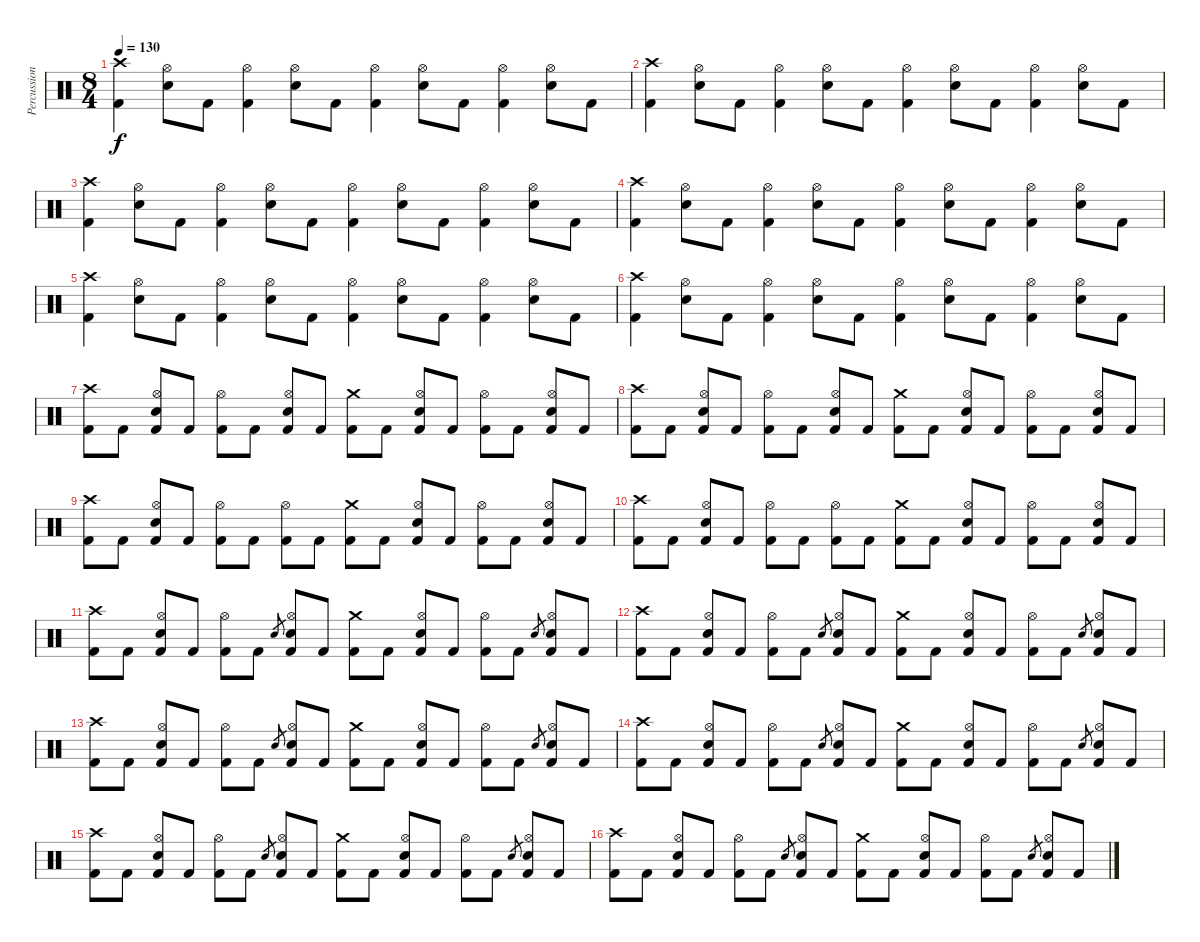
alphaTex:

\track ("Percussion" "Percussion") {instrument percussion}
\staff {score}
\articulation defaults
\ts (8 4)
\tempo 130
\clef neutral
\ks c
("Crash high (hit)" "Kick (hit) 2").4{dy f} ("Hi-Hat (open)" "Snare (hit) 2").8 "Kick (hit) 2".8 ("Hi-Hat (open)" "Kick (hit) 2").4 ("Hi-Hat (open)" "Snare (hit) 2").8 "Kick (hit) 2".8 ("Hi-Hat (open)" "Kick (hit) 2").4 ("Hi-Hat (open)" "Snare (hit) 2").8 "Kick (hit) 2".8 ("Hi-Hat (open)" "Kick (hit) 2").4 ("Hi-Hat (open)" "Snare (hit) 2").8 "Kick (hit) 2".8 |
("Crash high (hit)" "Kick (hit) 2").4 ("Hi-Hat (open)" "Snare (hit) 2").8 "Kick (hit) 2".8 ("Hi-Hat (open)" "Kick (hit) 2").4 ("Hi-Hat (open)" "Snare (hit) 2").8 "Kick (hit) 2".8 ("Hi-Hat (open)" "Kick (hit) 2").4 ("Hi-Hat (open)" "Snare (hit) 2").8 "Kick (hit) 2".8 ("Hi-Hat (open)" "Kick (hit) 2").4 ("Hi-Hat (open)" "Snare (hit) 2").8 "Kick (hit) 2".8 |
("Crash high (hit)" "Kick (hit) 2").4 ("Hi-Hat (open)" "Snare (hit) 2").8 "Kick (hit) 2".8 ("Hi-Hat (open)" "Kick (hit) 2").4 ("Hi-Hat (open)" "Snare (hit) 2").8 "Kick (hit) 2".8 ("Hi-Hat (open)" "Kick (hit) 2").4 ("Hi-Hat (open)" "Snare (hit) 2").8 "Kick (hit) 2".8 ("Hi-Hat (open)" "Kick (hit) 2").4 ("Hi-Hat (open)" "Snare (hit) 2").8 "Kick (hit) 2".8 |
("Crash high (hit)" "Kick (hit) 2").4 ("Hi-Hat (open)" "Snare (hit) 2").8 "Kick (hit) 2".8 ("Hi-Hat (open)" "Kick (hit) 2").4 ("Hi-Hat (open)" "Snare (hit) 2").8 "Kick (hit) 2".8 ("Hi-Hat (open)" "Kick (hit) 2").4 ("Hi-Hat (open)" "Snare (hit) 2").8 "Kick (hit) 2".8 ("Hi-Hat (open)" "Kick (hit) 2").4 ("Hi-Hat (open)" "Snare (hit) 2").8 "Kick (hit) 2".8 |
("Crash high (hit)" "Kick (hit) 2").4 ("Hi-Hat (open)" "Snare (hit) 2").8 "Kick (hit) 2".8 ("Hi-Hat (open)" "Kick (hit) 2").4 ("Hi-Hat (open)" "Snare (hit) 2").8 "Kick (hit) 2".8 ("Hi-Hat (open)" "Kick (hit) 2").4 ("Hi-Hat (open)" "Snare (hit) 2").8 "Kick (hit) 2".8 ("Hi-Hat (open)" "Kick (hit) 2").4 ("Hi-Hat (open)" "Snare (hit) 2").8 "Kick (hit) 2".8 |
("Crash high (hit)" "Kick (hit) 2").4 ("Hi-Hat (open)" "Snare (hit) 2").8 "Kick (hit) 2".8 ("Hi-Hat (open)" "Kick (hit) 2").4 ("Hi-Hat (open)" "Snare (hit) 2").8 "Kick (hit) 2".8 ("Hi-Hat (open)" "Kick (hit) 2").4 ("Hi-Hat (open)" "Snare (hit) 2").8 "Kick (hit) 2".8 ("Hi-Hat (open)" "Kick (hit) 2").4 ("Hi-Hat (open)" "Snare (hit) 2").8 "Kick (hit) 2".8 |
("Crash high (hit)" "Kick (hit) 2").8 "Kick (hit) 2".8 ("Hi-Hat (open)" "Snare (hit) 2" "Kick (hit) 2").8 "Kick (hit) 2".8 ("Hi-Hat (open)" "Kick (hit) 2").8 "Kick (hit) 2".8 ("Hi-Hat (open)" "Snare (hit) 2" "Kick (hit) 2").8 "Kick (hit) 2".8 ("Crash medium (hit)" "Kick (hit) 2").8 "Kick (hit) 2".8 ("Hi-Hat (open)" "Snare (hit) 2" "Kick (hit) 2").8 "Kick (hit) 2".8 ("Hi-Hat (open)" "Kick (hit) 2").8 "Kick (hit) 2".8 ("Hi-Hat (open)" "Snare (hit) 2" "Kick (hit) 2").8 "Kick (hit) 2".8 |
("Crash high (hit)" "Kick (hit) 2").8 "Kick (hit) 2".8 ("Hi-Hat (open)" "Snare (hit) 2" "Kick (hit) 2").8 "Kick (hit) 2".8 ("Hi-Hat (open)" "Kick (hit) 2").8 "Kick (hit) 2".8 ("Hi-Hat (open)" "Snare (hit) 2" "Kick (hit) 2").8 "Kick (hit) 2".8 ("Crash medium (hit)" "Kick (hit) 2").8 "Kick (hit) 2".8 ("Hi-Hat (open)" "Snare (hit) 2" "Kick (hit) 2").8 "Kick (hit) 2".8 ("Hi-Hat (open)" "Kick (hit) 2").8 "Kick (hit) 2".8 ("Hi-Hat (open)" "Snare (hit) 2" "Kick (hit) 2").8 "Kick (hit) 2".8 |
("Crash high (hit)" "Kick (hit) 2").8 "Kick (hit) 2".8 ("Hi-Hat (open)" "Snare (hit) 2" "Kick (hit) 2").8 "Kick (hit) 2".8 ("Hi-Hat (open)" "Kick (hit) 2").8 "Kick (hit) 2".8 ("Hi-Hat (open)" "Kick (hit) 2").8 "Kick (hit) 2".8 ("Crash medium (hit)" "Kick (hit) 2").8 "Kick (hit) 2".8 ("Hi-Hat (open)" "Snare (hit) 2" "Kick (hit) 2").8 "Kick (hit) 2".8 ("Hi-Hat (open)" "Kick (hit) 2").8 "Kick (hit) 2".8 ("Hi-Hat (open)" "Snare (hit) 2" "Kick (hit) 2").8 "Kick (hit) 2".8 |
("Crash high (hit)" "Kick (hit) 2").8 "Kick (hit) 2".8 ("Hi-Hat (open)" "Snare (hit) 2" "Kick (hit) 2").8 "Kick (hit) 2".8 ("Hi-Hat (open)" "Kick (hit) 2").8 "Kick (hit) 2".8 ("Hi-Hat (open)" "Kick (hit) 2").8 "Kick (hit) 2".8 ("Crash medium (hit)" "Kick (hit) 2").8 "Kick (hit) 2".8 ("Hi-Hat (open)" "Snare (hit) 2" "Kick (hit) 2").8 "Kick (hit) 2".8 ("Hi-Hat (open)" "Kick (hit) 2").8 "Kick (hit) 2".8 ("Hi-Hat (open)" "Snare (hit) 2" "Kick (hit) 2").8 "Kick (hit) 2".8 |
("Crash high (hit)" "Kick (hit) 2").8 "Kick (hit) 2".8 ("Hi-Hat (open)" "Snare (hit) 2" "Kick (hit) 2").8 "Kick (hit) 2".8 ("Hi-Hat (open)" "Kick (hit) 2").8 "Kick (hit) 2".8 "Snare (hit) 2".8{gr} ("Hi-Hat (open)" "Snare (hit) 2" "Kick (hit) 2").8 "Kick (hit) 2".8 ("Crash medium (hit)" "Kick (hit) 2").8 "Kick (hit) 2".8 ("Hi-Hat (open)" "Snare (hit) 2" "Kick (hit) 2").8 "Kick (hit) 2".8 ("Hi-Hat (open)" "Kick (hit) 2").8 "Kick (hit) 2".8 "Snare (hit) 2".8{gr} ("Hi-Hat (open)" "Snare (hit) 2" "Kick (hit) 2").8 "Kick (hit) 2".8 |
("Crash high (hit)" "Kick (hit) 2").8 "Kick (hit) 2".8 ("Hi-Hat (open)" "Snare (hit) 2" "Kick (hit) 2").8 "Kick (hit) 2".8 ("Hi-Hat (open)" "Kick (hit) 2").8 "Kick (hit) 2".8 "Snare (hit) 2".8{gr} ("Hi-Hat (open)" "Snare (hit) 2" "Kick (hit) 2").8 "Kick (hit) 2".8 ("Crash medium (hit)" "Kick (hit) 2").8 "Kick (hit) 2".8 ("Hi-Hat (open)" "Snare (hit) 2" "Kick (hit) 2").8 "Kick (hit) 2".8 ("Hi-Hat (open)" "Kick (hit) 2").8 "Kick (hit) 2".8 "Snare (hit) 2".8{gr} ("Hi-Hat (open)" "Snare (hit) 2" "Kick (hit) 2").8 "Kick (hit) 2".8 |
("Crash high (hit)" "Kick (hit) 2").8 "Kick (hit) 2".8 ("Hi-Hat (open)" "Snare (hit) 2" "Kick (hit) 2").8 "Kick (hit) 2".8 ("Hi-Hat (open)" "Kick (hit) 2").8 "Kick (hit) 2".8 "Snare (hit) 2".8{gr} ("Hi-Hat (open)" "Snare (hit) 2" "Kick (hit) 2").8 "Kick (hit) 2".8 ("Crash medium (hit)" "Kick (hit) 2").8 "Kick (hit) 2".8 ("Hi-Hat (open)" "Snare (hit) 2" "Kick (hit) 2").8 "Kick (hit) 2".8 ("Hi-Hat (open)" "Kick (hit) 2").8 "Kick (hit) 2".8 "Snare (hit) 2".8{gr} ("Hi-Hat (open)" "Snare (hit) 2" "Kick (hit) 2").8 "Kick (hit) 2".8 |
("Crash high (hit)" "Kick (hit) 2").8 "Kick (hit) 2".8 ("Hi-Hat (open)" "Snare (hit) 2" "Kick (hit) 2").8 "Kick (hit) 2".8 ("Hi-Hat (open)" "Kick (hit) 2").8 "Kick (hit) 2".8 "Snare (hit) 2".8{gr} ("Hi-Hat (open)" "Snare (hit) 2" "Kick (hit) 2").8 "Kick (hit) 2".8 ("Crash medium (hit)" "Kick (hit) 2").8 "Kick (hit) 2".8 ("Hi-Hat (open)" "Snare (hit) 2" "Kick (hit) 2").8 "Kick (hit) 2".8 ("Hi-Hat (open)" "Kick (hit) 2").8 "Kick (hit) 2".8 "Snare (hit) 2".8{gr} ("Hi-Hat (open)" "Snare (hit) 2" "Kick (hit) 2").8 "Kick (hit) 2".8 |
("Crash high (hit)" "Kick (hit) 2").8 "Kick (hit) 2".8 ("Hi-Hat (open)" "Snare (hit) 2" "Kick (hit) 2").8 "Kick (hit) 2".8 ("Hi-Hat (open)" "Kick (hit) 2").8 "Kick (hit) 2".8 "Snare (hit) 2".8{gr} ("Hi-Hat (open)" "Snare (hit) 2" "Kick (hit) 2").8 "Kick (hit) 2".8 ("Crash medium (hit)" "Kick (hit) 2").8 "Kick (hit) 2".8 ("Hi-Hat (open)" "Snare (hit) 2" "Kick (hit) 2").8 "Kick (hit) 2".8 ("Hi-Hat (open)" "Kick (hit) 2").8 "Kick (hit) 2".8 "Snare (hit) 2".8{gr} ("Hi-Hat (open)" "Snare (hit) 2" "Kick (hit) 2").8 "Kick (hit) 2".8 |
("Crash high (hit)" "Kick (hit) 2").8 "Kick (hit) 2".8 ("Hi-Hat (open)" "Snare (hit) 2" "Kick (hit) 2").8 "Kick (hit) 2".8 ("Hi-Hat (open)" "Kick (hit) 2").8 "Kick (hit) 2".8 "Snare (hit) 2".8{gr} ("Hi-Hat (open)" "Snare (hit) 2" "Kick (hit) 2").8 "Kick (hit) 2".8 ("Crash medium (hit)" "Kick (hit) 2").8 "Kick (hit) 2".8 ("Hi-Hat (open)" "Snare (hit) 2" "Kick (hit) 2").8 "Kick (hit) 2".8 ("Hi-Hat (open)" "Kick (hit) 2").8 "Kick (hit) 2".8 "Snare (hit) 2".8{gr} ("Hi-Hat (open)" "Snare (hit) 2" "Kick (hit) 2").8 "Kick (hit) 2".8
